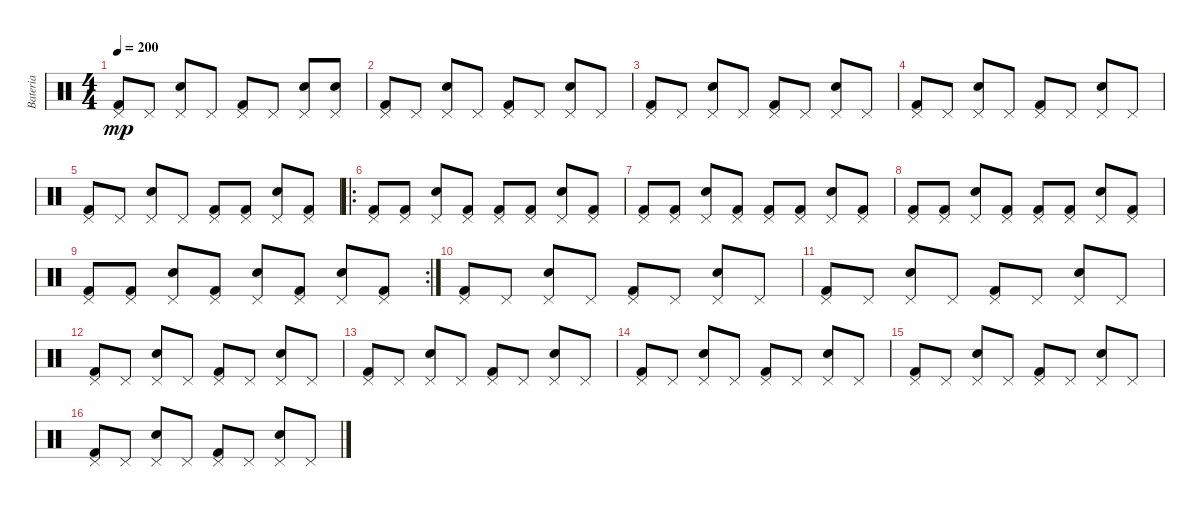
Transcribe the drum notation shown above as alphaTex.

\track ("Bateria" "Bateria") {instrument percussion}
\staff {score}
\articulation defaults
\ts (4 4)
\tempo 200
\clef neutral
\ks c
("Pedal Hi-Hat (hit)" "Kick (hit) 2").8{dy mp} "Pedal Hi-Hat (hit)".8 ("Pedal Hi-Hat (hit)" "Electric Snare (hit)").8 "Pedal Hi-Hat (hit)".8 ("Pedal Hi-Hat (hit)" "Kick (hit) 2").8 "Pedal Hi-Hat (hit)".8 ("Pedal Hi-Hat (hit)" "Electric Snare (hit)").8 ("Pedal Hi-Hat (hit)" "Electric Snare (hit)").8 |
("Pedal Hi-Hat (hit)" "Kick (hit) 2").8 "Pedal Hi-Hat (hit)".8 ("Pedal Hi-Hat (hit)" "Electric Snare (hit)").8 "Pedal Hi-Hat (hit)".8 ("Pedal Hi-Hat (hit)" "Kick (hit) 2").8 "Pedal Hi-Hat (hit)".8 ("Pedal Hi-Hat (hit)" "Electric Snare (hit)").8 "Pedal Hi-Hat (hit)".8 |
("Pedal Hi-Hat (hit)" "Kick (hit) 2").8 "Pedal Hi-Hat (hit)".8 ("Pedal Hi-Hat (hit)" "Electric Snare (hit)").8 "Pedal Hi-Hat (hit)".8 ("Pedal Hi-Hat (hit)" "Kick (hit) 2").8 "Pedal Hi-Hat (hit)".8 ("Pedal Hi-Hat (hit)" "Electric Snare (hit)").8 "Pedal Hi-Hat (hit)".8 |
("Pedal Hi-Hat (hit)" "Kick (hit) 2").8 "Pedal Hi-Hat (hit)".8 ("Pedal Hi-Hat (hit)" "Electric Snare (hit)").8 "Pedal Hi-Hat (hit)".8 ("Pedal Hi-Hat (hit)" "Kick (hit) 2").8 "Pedal Hi-Hat (hit)".8 ("Pedal Hi-Hat (hit)" "Electric Snare (hit)").8 "Pedal Hi-Hat (hit)".8 |
("Pedal Hi-Hat (hit)" "Kick (hit) 2").8 "Pedal Hi-Hat (hit)".8 ("Pedal Hi-Hat (hit)" "Electric Snare (hit)").8 "Pedal Hi-Hat (hit)".8 ("Pedal Hi-Hat (hit)" "Kick (hit) 2").8 ("Pedal Hi-Hat (hit)" "Kick (hit) 2").8 ("Pedal Hi-Hat (hit)" "Electric Snare (hit)").8 ("Pedal Hi-Hat (hit)" "Kick (hit) 2").8 |
\ro
("Pedal Hi-Hat (hit)" "Kick (hit) 2").8 ("Pedal Hi-Hat (hit)" "Kick (hit) 2").8 ("Pedal Hi-Hat (hit)" "Electric Snare (hit)").8 ("Pedal Hi-Hat (hit)" "Kick (hit) 2").8 ("Pedal Hi-Hat (hit)" "Kick (hit) 2").8 ("Pedal Hi-Hat (hit)" "Kick (hit) 2").8 ("Pedal Hi-Hat (hit)" "Electric Snare (hit)").8 ("Pedal Hi-Hat (hit)" "Kick (hit) 2").8 |
("Pedal Hi-Hat (hit)" "Kick (hit) 2").8 ("Pedal Hi-Hat (hit)" "Kick (hit) 2").8 ("Pedal Hi-Hat (hit)" "Electric Snare (hit)").8 ("Pedal Hi-Hat (hit)" "Kick (hit) 2").8 ("Pedal Hi-Hat (hit)" "Kick (hit) 2").8 ("Pedal Hi-Hat (hit)" "Kick (hit) 2").8 ("Pedal Hi-Hat (hit)" "Electric Snare (hit)").8 ("Pedal Hi-Hat (hit)" "Kick (hit) 2").8 |
("Pedal Hi-Hat (hit)" "Kick (hit) 2").8 ("Pedal Hi-Hat (hit)" "Kick (hit) 2").8 ("Pedal Hi-Hat (hit)" "Electric Snare (hit)").8 ("Pedal Hi-Hat (hit)" "Kick (hit) 2").8 ("Pedal Hi-Hat (hit)" "Kick (hit) 2").8 ("Pedal Hi-Hat (hit)" "Kick (hit) 2").8 ("Pedal Hi-Hat (hit)" "Electric Snare (hit)").8 ("Pedal Hi-Hat (hit)" "Kick (hit) 2").8 |
\rc 2
("Pedal Hi-Hat (hit)" "Kick (hit) 2").8 ("Pedal Hi-Hat (hit)" "Kick (hit) 2").8 ("Pedal Hi-Hat (hit)" "Electric Snare (hit)").8 ("Pedal Hi-Hat (hit)" "Kick (hit) 2").8 ("Pedal Hi-Hat (hit)" "Electric Snare (hit)").8 ("Pedal Hi-Hat (hit)" "Kick (hit) 2").8 ("Pedal Hi-Hat (hit)" "Electric Snare (hit)").8 ("Pedal Hi-Hat (hit)" "Kick (hit) 2").8 |
("Pedal Hi-Hat (hit)" "Kick (hit) 2").8 "Pedal Hi-Hat (hit)".8 ("Pedal Hi-Hat (hit)" "Electric Snare (hit)").8 "Pedal Hi-Hat (hit)".8 ("Pedal Hi-Hat (hit)" "Kick (hit) 2").8 "Pedal Hi-Hat (hit)".8 ("Pedal Hi-Hat (hit)" "Electric Snare (hit)").8 "Pedal Hi-Hat (hit)".8 |
("Pedal Hi-Hat (hit)" "Kick (hit) 2").8 "Pedal Hi-Hat (hit)".8 ("Pedal Hi-Hat (hit)" "Electric Snare (hit)").8 "Pedal Hi-Hat (hit)".8 ("Pedal Hi-Hat (hit)" "Kick (hit) 2").8 "Pedal Hi-Hat (hit)".8 ("Pedal Hi-Hat (hit)" "Electric Snare (hit)").8 "Pedal Hi-Hat (hit)".8 |
("Pedal Hi-Hat (hit)" "Kick (hit) 2").8 "Pedal Hi-Hat (hit)".8 ("Pedal Hi-Hat (hit)" "Electric Snare (hit)").8 "Pedal Hi-Hat (hit)".8 ("Pedal Hi-Hat (hit)" "Kick (hit) 2").8 "Pedal Hi-Hat (hit)".8 ("Pedal Hi-Hat (hit)" "Electric Snare (hit)").8 "Pedal Hi-Hat (hit)".8 |
("Pedal Hi-Hat (hit)" "Kick (hit) 2").8 "Pedal Hi-Hat (hit)".8 ("Pedal Hi-Hat (hit)" "Electric Snare (hit)").8 "Pedal Hi-Hat (hit)".8 ("Pedal Hi-Hat (hit)" "Kick (hit) 2").8 "Pedal Hi-Hat (hit)".8 ("Pedal Hi-Hat (hit)" "Electric Snare (hit)").8 "Pedal Hi-Hat (hit)".8 |
("Pedal Hi-Hat (hit)" "Kick (hit) 2").8 "Pedal Hi-Hat (hit)".8 ("Pedal Hi-Hat (hit)" "Electric Snare (hit)").8 "Pedal Hi-Hat (hit)".8 ("Pedal Hi-Hat (hit)" "Kick (hit) 2").8 "Pedal Hi-Hat (hit)".8 ("Pedal Hi-Hat (hit)" "Electric Snare (hit)").8 "Pedal Hi-Hat (hit)".8 |
("Pedal Hi-Hat (hit)" "Kick (hit) 2").8 "Pedal Hi-Hat (hit)".8 ("Pedal Hi-Hat (hit)" "Electric Snare (hit)").8 "Pedal Hi-Hat (hit)".8 ("Pedal Hi-Hat (hit)" "Kick (hit) 2").8 "Pedal Hi-Hat (hit)".8 ("Pedal Hi-Hat (hit)" "Electric Snare (hit)").8 "Pedal Hi-Hat (hit)".8 |
("Pedal Hi-Hat (hit)" "Kick (hit) 2").8 "Pedal Hi-Hat (hit)".8 ("Pedal Hi-Hat (hit)" "Electric Snare (hit)").8 "Pedal Hi-Hat (hit)".8 ("Pedal Hi-Hat (hit)" "Kick (hit) 2").8 "Pedal Hi-Hat (hit)".8 ("Pedal Hi-Hat (hit)" "Electric Snare (hit)").8 "Pedal Hi-Hat (hit)".8
